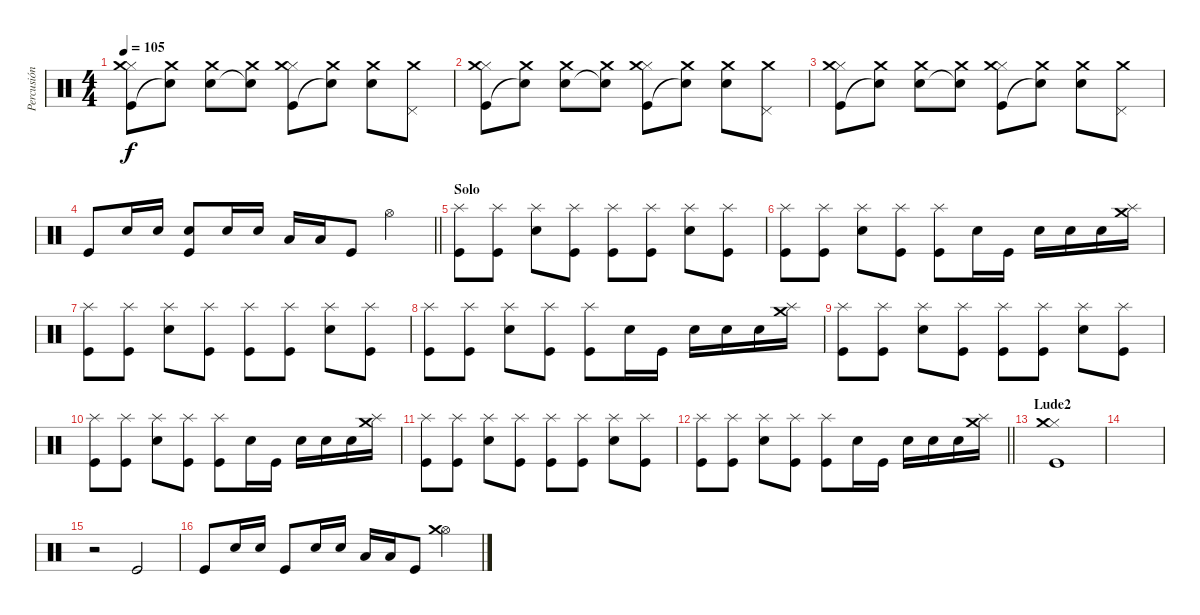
\track ("Percusión" "Percusión") {instrument percussion}
\staff {score}
\articulation defaults
\ts (4 4)
\tempo 105
\clef neutral
\ks c
("Kick (hit)" "Hi-Hat (closed)" "Crash medium (hit)").8{dy f} ("Snare (hit)"{t} "Crash medium (hit)").8 ("Electric Snare (hit)" "Crash medium (hit)").8 ("Snare (hit)"{t} "Crash medium (hit)").8 ("Kick (hit)" "Hi-Hat (closed)" "Crash medium (hit)").8 ("Snare (hit)"{t} "Crash medium (hit)").8 ("Electric Snare (hit)" "Crash medium (hit)").8 ("Pedal Hi-Hat (hit)" "Crash medium (hit)").8 |
("Kick (hit)" "Hi-Hat (closed)" "Crash medium (hit)").8 ("Snare (hit)"{t} "Crash medium (hit)").8 ("Electric Snare (hit)" "Crash medium (hit)").8 ("Snare (hit)"{t} "Crash medium (hit)").8 ("Kick (hit)" "Hi-Hat (closed)" "Crash medium (hit)").8 ("Snare (hit)"{t} "Crash medium (hit)").8 ("Electric Snare (hit)" "Crash medium (hit)").8 ("Pedal Hi-Hat (hit)" "Crash medium (hit)").8 |
("Kick (hit)" "Hi-Hat (closed)" "Crash medium (hit)").8 ("Snare (hit)"{t} "Crash medium (hit)").8 ("Electric Snare (hit)" "Crash medium (hit)").8 ("Snare (hit)"{t} "Crash medium (hit)").8 ("Kick (hit)" "Hi-Hat (closed)" "Crash medium (hit)").8 ("Snare (hit)"{t} "Crash medium (hit)").8 ("Electric Snare (hit)" "Crash medium (hit)").8 ("Pedal Hi-Hat (hit)" "Crash medium (hit)").8 |
\barLineRight lightlight "Kick (hit)".8 "Electric Snare (hit)".16 "Electric Snare (hit)".16
("Electric Snare (hit)" "Kick (hit)").8 "Electric Snare (hit)".16 "Electric Snare (hit)".16 "Low Tom (hit)".16 "Low Floor Tom (hit)".16 "Kick (hit)".8 "Hi-Hat (open)".4 |
\section ("" "Solo")
("Kick (hit)" "Splash (hit)").8 ("Kick (hit)" "Splash (hit)").8 ("Electric Snare (hit)" "Splash (hit)").8 ("Kick (hit)" "Splash (hit)").8 ("Kick (hit)" "Splash (hit)").8 ("Kick (hit)" "Splash (hit)").8 ("Electric Snare (hit)" "Splash (hit)").8 ("Kick (hit)" "Splash (hit)").8 |
("Kick (hit)" "Splash (hit)").8 ("Kick (hit)" "Splash (hit)").8 ("Electric Snare (hit)" "Splash (hit)").8 ("Kick (hit)" "Splash (hit)").8 ("Kick (hit)" "Splash (hit)").8 "Electric Snare (hit)".16 "Kick (hit)".16 "Electric Snare (hit)".16 "Electric Snare (hit)".16 "Electric Snare (hit)".16 ("Crash medium (hit)" "Splash (hit)").16 |
("Kick (hit)" "Splash (hit)").8 ("Kick (hit)" "Splash (hit)").8 ("Electric Snare (hit)" "Splash (hit)").8 ("Kick (hit)" "Splash (hit)").8 ("Kick (hit)" "Splash (hit)").8 ("Kick (hit)" "Splash (hit)").8 ("Electric Snare (hit)" "Splash (hit)").8 ("Kick (hit)" "Splash (hit)").8 |
("Kick (hit)" "Splash (hit)").8 ("Kick (hit)" "Splash (hit)").8 ("Electric Snare (hit)" "Splash (hit)").8 ("Kick (hit)" "Splash (hit)").8 ("Kick (hit)" "Splash (hit)").8 "Electric Snare (hit)".16 "Kick (hit)".16 "Electric Snare (hit)".16 "Electric Snare (hit)".16 "Electric Snare (hit)".16 ("Crash medium (hit)" "Splash (hit)").16 |
("Kick (hit)" "Splash (hit)").8 ("Kick (hit)" "Splash (hit)").8 ("Electric Snare (hit)" "Splash (hit)").8 ("Kick (hit)" "Splash (hit)").8 ("Kick (hit)" "Splash (hit)").8 ("Kick (hit)" "Splash (hit)").8 ("Electric Snare (hit)" "Splash (hit)").8 ("Kick (hit)" "Splash (hit)").8 |
("Kick (hit)" "Splash (hit)").8 ("Kick (hit)" "Splash (hit)").8 ("Electric Snare (hit)" "Splash (hit)").8 ("Kick (hit)" "Splash (hit)").8 ("Kick (hit)" "Splash (hit)").8 "Electric Snare (hit)".16 "Kick (hit)".16 "Electric Snare (hit)".16 "Electric Snare (hit)".16 "Electric Snare (hit)".16 ("Crash medium (hit)" "Splash (hit)").16 |
("Kick (hit)" "Splash (hit)").8 ("Kick (hit)" "Splash (hit)").8 ("Electric Snare (hit)" "Splash (hit)").8 ("Kick (hit)" "Splash (hit)").8 ("Kick (hit)" "Splash (hit)").8 ("Kick (hit)" "Splash (hit)").8 ("Electric Snare (hit)" "Splash (hit)").8 ("Kick (hit)" "Splash (hit)").8 |
\barLineRight lightlight
("Kick (hit)" "Splash (hit)").8 ("Kick (hit)" "Splash (hit)").8 ("Electric Snare (hit)" "Splash (hit)").8 ("Kick (hit)" "Splash (hit)").8 ("Kick (hit)" "Splash (hit)").8 "Electric Snare (hit)".16 "Kick (hit)".16 "Electric Snare (hit)".16 "Electric Snare (hit)".16 "Electric Snare (hit)".16 ("Crash medium (hit)" "Splash (hit)").16 |
\section ("" "Lude2")
("Kick (hit)" "Hi-Hat (closed)" "Crash medium (hit)").1 |
|
r.2 "Kick (hit)".2 |
"Kick (hit)".8 "Electric Snare (hit)".16 "Electric Snare (hit)".16 "Kick (hit)".8 "Electric Snare (hit)".16 "Electric Snare (hit)".16 "Low Tom (hit)".16 "Low Floor Tom (hit)".16 "Kick (hit)".8 ("Hi-Hat (open)" "Crash medium (hit)").4
